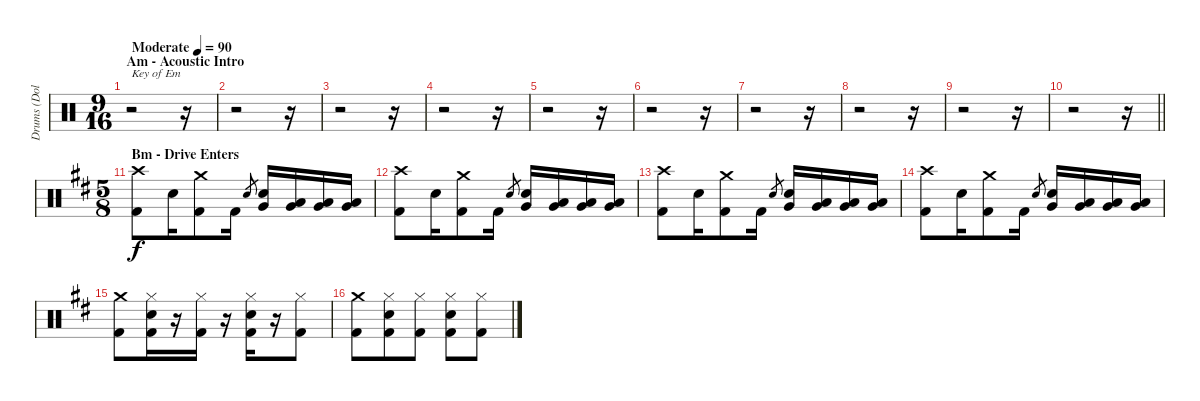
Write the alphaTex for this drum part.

\track ("Drums (Dolmayan)" "Drums (Dol") {instrument percussion}
\staff {score}
\articulation defaults
\ts (9 16)
\section ("" "Am - Acoustic Intro")
\tempo (90 "Moderate")
\clef neutral
\ks aminor
r.2{txt "Key of Em" dy f} r.16 |
r.2 r.16 |
r.2 r.16 |
r.2 r.16 |
r.2 r.16 |
r.2 r.16 |
r.2 r.16 |
r.2 r.16 |
r.2 r.16 |
\barLineRight lightlight
r.2 r.16 |
\ts (5 8)
\section ("" "Bm - Drive Enters")
\ks bminor
("Crash high (hit)" "Kick (hit) 2").8 "Electric Snare (hit)".16 ("Crash medium (hit)" "Kick (hit) 2").8 "Kick (hit) 2".16 "Electric Snare (hit)".8{gr} ("Very Low Tom (hit)" "Electric Snare (hit)").16 ("Low Tom (hit)" "Very Low Tom (hit)").16 ("Very Low Tom (hit)" "Low Floor Tom (hit)").16 ("Very Low Tom (hit)" "Low Floor Tom (hit)").16 |
("Crash high (hit)" "Kick (hit) 2").8 "Electric Snare (hit)".16 ("Crash medium (hit)" "Kick (hit) 2").8 "Kick (hit) 2".16 "Electric Snare (hit)".8{gr} ("Very Low Tom (hit)" "Electric Snare (hit)").16 ("Low Tom (hit)" "Very Low Tom (hit)").16 ("Very Low Tom (hit)" "Low Floor Tom (hit)").16 ("Very Low Tom (hit)" "Low Floor Tom (hit)").16 |
("Crash high (hit)" "Kick (hit) 2").8 "Electric Snare (hit)".16 ("Crash medium (hit)" "Kick (hit) 2").8 "Kick (hit) 2".16 "Electric Snare (hit)".8{gr} ("Very Low Tom (hit)" "Electric Snare (hit)").16 ("Low Tom (hit)" "Very Low Tom (hit)").16 ("Very Low Tom (hit)" "Low Floor Tom (hit)").16 ("Very Low Tom (hit)" "Low Floor Tom (hit)").16 |
("Crash high (hit)" "Kick (hit) 2").8 "Electric Snare (hit)".16 ("Crash medium (hit)" "Kick (hit) 2").8 "Kick (hit) 2".16 "Electric Snare (hit)".8{gr} ("Very Low Tom (hit)" "Electric Snare (hit)").16 ("Low Tom (hit)" "Very Low Tom (hit)").16 ("Very Low Tom (hit)" "Low Floor Tom (hit)").16 ("Very Low Tom (hit)" "Low Floor Tom (hit)").16 |
("Crash medium (hit)" "Kick (hit) 2").8 ("Hi-Hat (closed)" "Electric Snare (hit)" "Kick (hit) 2").16 r.16 ("Hi-Hat (closed)" "Kick (hit) 2").16 r.16 ("Hi-Hat (closed)" "Electric Snare (hit)" "Kick (hit) 2").16 r.16 ("Hi-Hat (closed)" "Kick (hit) 2").8 |
("Crash medium (hit)" "Kick (hit) 2").8 ("Hi-Hat (closed)" "Electric Snare (hit)" "Kick (hit) 2").8 ("Hi-Hat (closed)" "Kick (hit) 2").8 ("Hi-Hat (closed)" "Electric Snare (hit)" "Kick (hit) 2").8 ("Hi-Hat (closed)" "Kick (hit) 2").8
